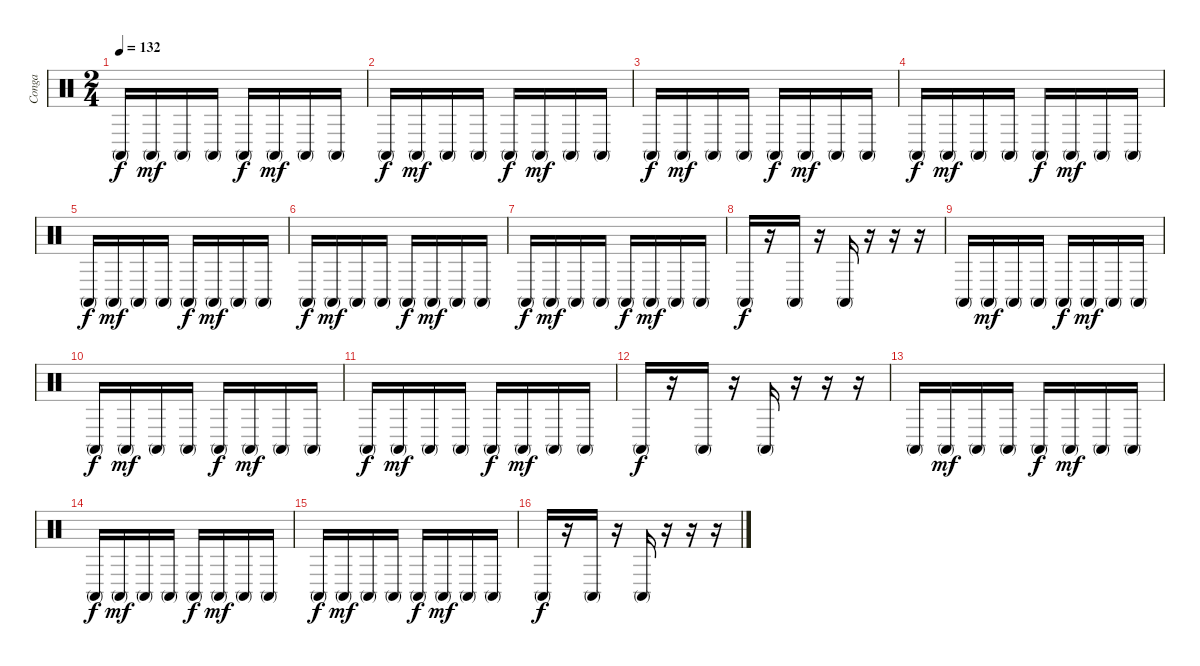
\track ("Conga" "Conga") {instrument percussion}
\staff {score}
\articulation defaults
\ts (2 4)
\tempo 132
\clef neutral
\ks c "Conga high (mute)".16{dy f} "Conga high (mute)".16{dy mf} "Conga high (mute)".16 "Conga high (mute)".16 "Conga high (mute)".16{dy f} "Conga high (mute)".16{dy mf} "Conga high (mute)".16 "Conga high (mute)".16
|
"Conga high (mute)".16{dy f} "Conga high (mute)".16{dy mf} "Conga high (mute)".16 "Conga high (mute)".16 "Conga high (mute)".16{dy f} "Conga high (mute)".16{dy mf} "Conga high (mute)".16 "Conga high (mute)".16 |
"Conga high (mute)".16{dy f} "Conga high (mute)".16{dy mf} "Conga high (mute)".16 "Conga high (mute)".16 "Conga high (mute)".16{dy f} "Conga high (mute)".16{dy mf} "Conga high (mute)".16 "Conga high (mute)".16 |
"Conga high (mute)".16{dy f} "Conga high (mute)".16{dy mf} "Conga high (mute)".16 "Conga high (mute)".16 "Conga high (mute)".16{dy f} "Conga high (mute)".16{dy mf} "Conga high (mute)".16 "Conga high (mute)".16 |
"Conga high (mute)".16{dy f} "Conga high (mute)".16{dy mf} "Conga high (mute)".16 "Conga high (mute)".16 "Conga high (mute)".16{dy f} "Conga high (mute)".16{dy mf} "Conga high (mute)".16 "Conga high (mute)".16 |
"Conga high (mute)".16{dy f} "Conga high (mute)".16{dy mf} "Conga high (mute)".16 "Conga high (mute)".16 "Conga high (mute)".16{dy f} "Conga high (mute)".16{dy mf} "Conga high (mute)".16 "Conga high (mute)".16 |
"Conga high (mute)".16{dy f} "Conga high (mute)".16{dy mf} "Conga high (mute)".16 "Conga high (mute)".16 "Conga high (mute)".16{dy f} "Conga high (mute)".16{dy mf} "Conga high (mute)".16 "Conga high (mute)".16 |
"Conga high (mute)".16{dy f} r.16 "Conga high (mute)".16 r.16 "Conga high (mute)".16 r.16 r.16 r.16 |
"Conga high (mute)".16 "Conga high (mute)".16{dy mf} "Conga high (mute)".16 "Conga high (mute)".16 "Conga high (mute)".16{dy f} "Conga high (mute)".16{dy mf} "Conga high (mute)".16 "Conga high (mute)".16 |
"Conga high (mute)".16{dy f} "Conga high (mute)".16{dy mf} "Conga high (mute)".16 "Conga high (mute)".16 "Conga high (mute)".16{dy f} "Conga high (mute)".16{dy mf} "Conga high (mute)".16 "Conga high (mute)".16 |
"Conga high (mute)".16{dy f} "Conga high (mute)".16{dy mf} "Conga high (mute)".16 "Conga high (mute)".16 "Conga high (mute)".16{dy f} "Conga high (mute)".16{dy mf} "Conga high (mute)".16 "Conga high (mute)".16 |
"Conga high (mute)".16{dy f} r.16 "Conga high (mute)".16 r.16 "Conga high (mute)".16 r.16 r.16 r.16 |
"Conga high (mute)".16 "Conga high (mute)".16{dy mf} "Conga high (mute)".16 "Conga high (mute)".16 "Conga high (mute)".16{dy f} "Conga high (mute)".16{dy mf} "Conga high (mute)".16 "Conga high (mute)".16 |
"Conga high (mute)".16{dy f} "Conga high (mute)".16{dy mf} "Conga high (mute)".16 "Conga high (mute)".16 "Conga high (mute)".16{dy f} "Conga high (mute)".16{dy mf} "Conga high (mute)".16 "Conga high (mute)".16 |
"Conga high (mute)".16{dy f} "Conga high (mute)".16{dy mf} "Conga high (mute)".16 "Conga high (mute)".16 "Conga high (mute)".16{dy f} "Conga high (mute)".16{dy mf} "Conga high (mute)".16 "Conga high (mute)".16 |
"Conga high (mute)".16{dy f} r.16 "Conga high (mute)".16 r.16 "Conga high (mute)".16 r.16 r.16 r.16
